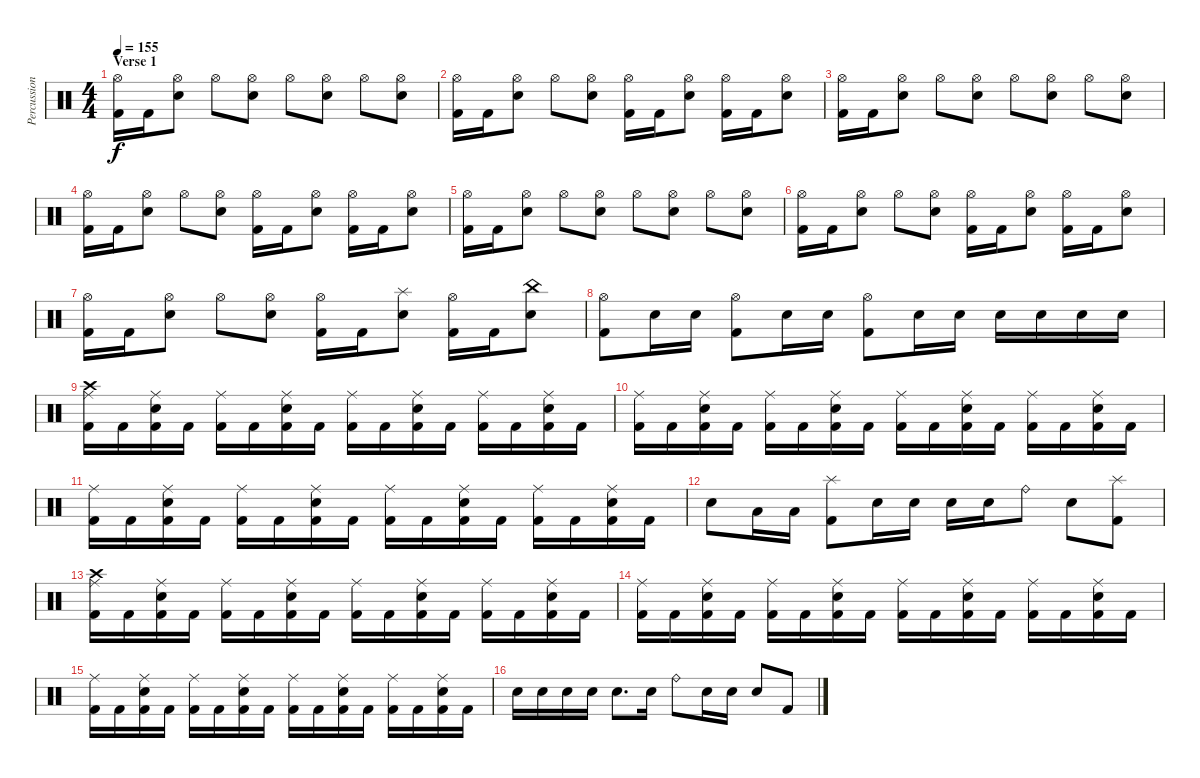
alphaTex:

\track ("Percussion" "Percussion") {instrument percussion}
\staff {score}
\articulation defaults
\ts (4 4)
\section ("" "Verse 1")
\tempo 155
\clef neutral
\ks c
("Hi-Hat (open)" "Kick (hit) 2").16{dy f} "Kick (hit) 2".16 ("Hi-Hat (open)" "Electric Snare (hit)").8 "Hi-Hat (open)".8 ("Hi-Hat (open)" "Electric Snare (hit)").8 "Hi-Hat (open)".8 ("Hi-Hat (open)" "Electric Snare (hit)").8 "Hi-Hat (open)".8 ("Hi-Hat (open)" "Electric Snare (hit)").8 |
("Hi-Hat (open)" "Kick (hit) 2").16 "Kick (hit) 2".16 ("Hi-Hat (open)" "Electric Snare (hit)").8 "Hi-Hat (open)".8 ("Hi-Hat (open)" "Electric Snare (hit)").8 ("Hi-Hat (open)" "Kick (hit) 2").16 "Kick (hit) 2".16 ("Hi-Hat (open)" "Electric Snare (hit)").8 ("Hi-Hat (open)" "Kick (hit) 2").16 "Kick (hit) 2".16 ("Hi-Hat (open)" "Electric Snare (hit)").8 |
("Hi-Hat (open)" "Kick (hit) 2").16 "Kick (hit) 2".16 ("Hi-Hat (open)" "Electric Snare (hit)").8 "Hi-Hat (open)".8 ("Hi-Hat (open)" "Electric Snare (hit)").8 "Hi-Hat (open)".8 ("Hi-Hat (open)" "Electric Snare (hit)").8 "Hi-Hat (open)".8 ("Hi-Hat (open)" "Electric Snare (hit)").8 |
("Hi-Hat (open)" "Kick (hit) 2").16 "Kick (hit) 2".16 ("Hi-Hat (open)" "Electric Snare (hit)").8 "Hi-Hat (open)".8 ("Hi-Hat (open)" "Electric Snare (hit)").8 ("Hi-Hat (open)" "Kick (hit) 2").16 "Kick (hit) 2".16 ("Hi-Hat (open)" "Electric Snare (hit)").8 ("Hi-Hat (open)" "Kick (hit) 2").16 "Kick (hit) 2".16 ("Hi-Hat (open)" "Electric Snare (hit)").8 |
("Hi-Hat (open)" "Kick (hit) 2").16 "Kick (hit) 2".16 ("Hi-Hat (open)" "Electric Snare (hit)").8 "Hi-Hat (open)".8 ("Hi-Hat (open)" "Electric Snare (hit)").8 "Hi-Hat (open)".8 ("Hi-Hat (open)" "Electric Snare (hit)").8 "Hi-Hat (open)".8 ("Hi-Hat (open)" "Electric Snare (hit)").8 |
("Hi-Hat (open)" "Kick (hit) 2").16 "Kick (hit) 2".16 ("Hi-Hat (open)" "Electric Snare (hit)").8 "Hi-Hat (open)".8 ("Hi-Hat (open)" "Electric Snare (hit)").8 ("Hi-Hat (open)" "Kick (hit) 2").16 "Kick (hit) 2".16 ("Hi-Hat (open)" "Electric Snare (hit)").8 ("Hi-Hat (open)" "Kick (hit) 2").16 "Kick (hit) 2".16 ("Hi-Hat (open)" "Electric Snare (hit)").8 |
("Hi-Hat (open)" "Kick (hit) 2").16 "Kick (hit) 2".16 ("Hi-Hat (open)" "Electric Snare (hit)").8 "Hi-Hat (open)".8 ("Hi-Hat (open)" "Electric Snare (hit)").8 ("Hi-Hat (open)" "Kick (hit) 2").16 "Kick (hit) 2".16 ("Splash (hit)" "Electric Snare (hit)").8 ("Hi-Hat (open)" "Kick (hit) 2").16 "Kick (hit) 2".16 ("China (hit)" "Electric Snare (hit)").8 |
("Hi-Hat (open)" "Kick (hit) 2").8 "Electric Snare (hit)".16 "Electric Snare (hit)".16 ("Hi-Hat (open)" "Kick (hit) 2").8 "Electric Snare (hit)".16 "Electric Snare (hit)".16 ("Hi-Hat (open)" "Kick (hit) 2").8 "Electric Snare (hit)".16 "Electric Snare (hit)".16 "Electric Snare (hit)".16 "Electric Snare (hit)".16 "Electric Snare (hit)".16 "Electric Snare (hit)".16 |
("Ride (middle)" "Crash high (hit)" "Kick (hit) 2").16 "Kick (hit) 2".16 ("Ride (middle)" "Electric Snare (hit)" "Kick (hit) 2").16 "Kick (hit) 2".16 ("Ride (middle)" "Kick (hit) 2").16 "Kick (hit) 2".16 ("Ride (middle)" "Electric Snare (hit)" "Kick (hit) 2").16 "Kick (hit) 2".16 ("Ride (middle)" "Kick (hit) 2").16 "Kick (hit) 2".16 ("Ride (middle)" "Electric Snare (hit)" "Kick (hit) 2").16 "Kick (hit) 2".16 ("Ride (middle)" "Kick (hit) 2").16 "Kick (hit) 2".16 ("Ride (middle)" "Electric Snare (hit)" "Kick (hit) 2").16 "Kick (hit) 2".16 |
("Ride (middle)" "Kick (hit) 2").16 "Kick (hit) 2".16 ("Ride (middle)" "Electric Snare (hit)" "Kick (hit) 2").16 "Kick (hit) 2".16 ("Ride (middle)" "Kick (hit) 2").16 "Kick (hit) 2".16 ("Ride (middle)" "Electric Snare (hit)" "Kick (hit) 2").16 "Kick (hit) 2".16 ("Ride (middle)" "Kick (hit) 2").16 "Kick (hit) 2".16 ("Ride (middle)" "Electric Snare (hit)" "Kick (hit) 2").16 "Kick (hit) 2".16 ("Ride (middle)" "Kick (hit) 2").16 "Kick (hit) 2".16 ("Ride (middle)" "Electric Snare (hit)" "Kick (hit) 2").16 "Kick (hit) 2".16 |
("Ride (middle)" "Kick (hit) 2").16 "Kick (hit) 2".16 ("Ride (middle)" "Electric Snare (hit)" "Kick (hit) 2").16 "Kick (hit) 2".16 ("Ride (middle)" "Kick (hit) 2").16 "Kick (hit) 2".16 ("Ride (middle)" "Electric Snare (hit)" "Kick (hit) 2").16 "Kick (hit) 2".16 ("Ride (middle)" "Kick (hit) 2").16 "Kick (hit) 2".16 ("Ride (middle)" "Electric Snare (hit)" "Kick (hit) 2").16 "Kick (hit) 2".16 ("Ride (middle)" "Kick (hit) 2").16 "Kick (hit) 2".16 ("Ride (middle)" "Electric Snare (hit)" "Kick (hit) 2").16 "Kick (hit) 2".16 |
"Electric Snare (hit)".8 "Low Floor Tom (hit)".16 "Low Floor Tom (hit)".16 ("Splash (hit)" "Kick (hit) 2").8 "Electric Snare (hit)".16 "Electric Snare (hit)".16 "Electric Snare (hit)".16 "Electric Snare (hit)".16 "Ride (bell)".8 "Electric Snare (hit)".8 ("Splash (hit)" "Kick (hit) 2").8 |
("Ride (middle)" "Crash high (hit)" "Kick (hit) 2").16 "Kick (hit) 2".16 ("Ride (middle)" "Electric Snare (hit)" "Kick (hit) 2").16 "Kick (hit) 2".16 ("Ride (middle)" "Kick (hit) 2").16 "Kick (hit) 2".16 ("Ride (middle)" "Electric Snare (hit)" "Kick (hit) 2").16 "Kick (hit) 2".16 ("Ride (middle)" "Kick (hit) 2").16 "Kick (hit) 2".16 ("Ride (middle)" "Electric Snare (hit)" "Kick (hit) 2").16 "Kick (hit) 2".16 ("Ride (middle)" "Kick (hit) 2").16 "Kick (hit) 2".16 ("Ride (middle)" "Electric Snare (hit)" "Kick (hit) 2").16 "Kick (hit) 2".16 |
("Ride (middle)" "Kick (hit) 2").16 "Kick (hit) 2".16 ("Ride (middle)" "Electric Snare (hit)" "Kick (hit) 2").16 "Kick (hit) 2".16 ("Ride (middle)" "Kick (hit) 2").16 "Kick (hit) 2".16 ("Ride (middle)" "Electric Snare (hit)" "Kick (hit) 2").16 "Kick (hit) 2".16 ("Ride (middle)" "Kick (hit) 2").16 "Kick (hit) 2".16 ("Ride (middle)" "Electric Snare (hit)" "Kick (hit) 2").16 "Kick (hit) 2".16 ("Ride (middle)" "Kick (hit) 2").16 "Kick (hit) 2".16 ("Ride (middle)" "Electric Snare (hit)" "Kick (hit) 2").16 "Kick (hit) 2".16 |
("Ride (middle)" "Kick (hit) 2").16 "Kick (hit) 2".16 ("Ride (middle)" "Electric Snare (hit)" "Kick (hit) 2").16 "Kick (hit) 2".16 ("Ride (middle)" "Kick (hit) 2").16 "Kick (hit) 2".16 ("Ride (middle)" "Electric Snare (hit)" "Kick (hit) 2").16 "Kick (hit) 2".16 ("Ride (middle)" "Kick (hit) 2").16 "Kick (hit) 2".16 ("Ride (middle)" "Electric Snare (hit)" "Kick (hit) 2").16 "Kick (hit) 2".16 ("Ride (middle)" "Kick (hit) 2").16 "Kick (hit) 2".16 ("Ride (middle)" "Electric Snare (hit)" "Kick (hit) 2").16 "Kick (hit) 2".16 |
"Electric Snare (hit)".16 "Electric Snare (hit)".16 "Electric Snare (hit)".16 "Electric Snare (hit)".16 "Electric Snare (hit)".8{d} "Electric Snare (hit)".16 "Ride (bell)".8 "Electric Snare (hit)".16 "Electric Snare (hit)".16 "Electric Snare (hit)".8 "Kick (hit) 2".8
